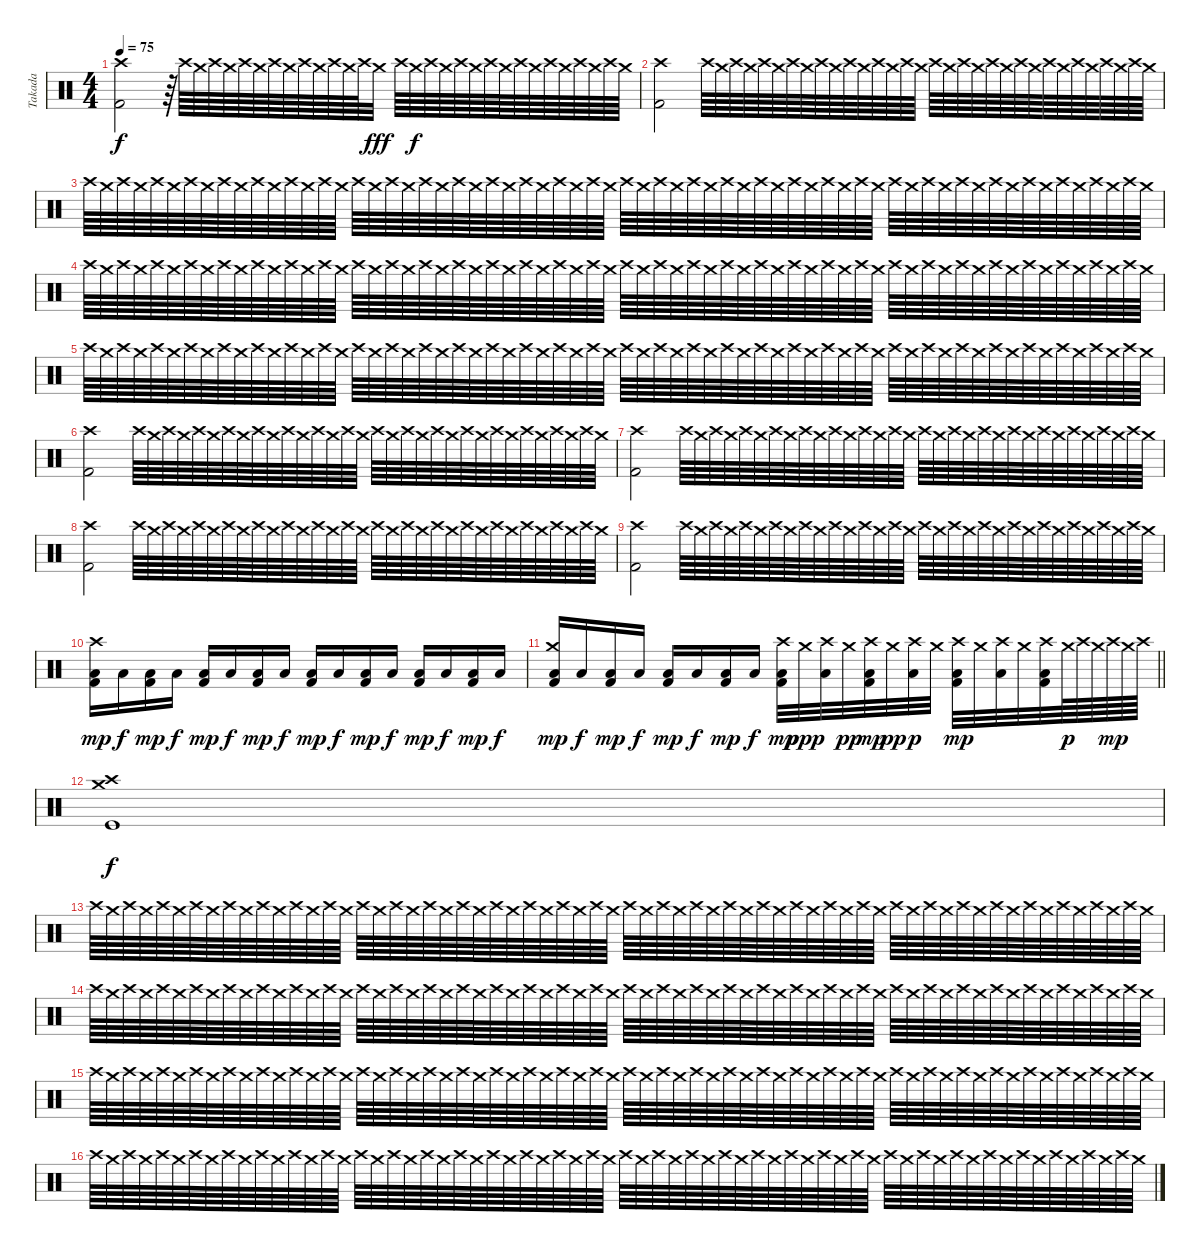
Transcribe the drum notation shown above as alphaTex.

\track ("Takada" "Takada") {instrument percussion}
\staff {score}
\articulation defaults
\ts (4 4)
\tempo 75
\clef neutral
\ks c
("Crash high (hit)" "Kick (hit) 2").2{dy f} r.64{volume 1} "Crash high (hit)".64{volume 6} "Crash medium (hit)".64 "Crash high (hit)".64 "Crash medium (hit)".64 "Crash high (hit)".64 "Crash medium (hit)".64 "Crash high (hit)".64 "Crash medium (hit)".64 "Crash high (hit)".64 "Crash medium (hit)".64 "Crash high (hit)".64 "Crash medium (hit)".64 "Crash high (hit)".64 "Crash medium (hit)".32{dy fff} "Crash high (hit)".64{volume 6} "Crash medium (hit)".64{dy f} "Crash high (hit)".64 "Crash medium (hit)".64 "Crash high (hit)".64 "Crash medium (hit)".64 "Crash high (hit)".64 "Crash medium (hit)".64 "Crash high (hit)".64 "Crash medium (hit)".64 "Crash high (hit)".64 "Crash medium (hit)".64 "Crash high (hit)".64 "Crash medium (hit)".64 "Crash high (hit)".64 "Crash medium (hit)".64 |
("Crash high (hit)" "Kick (hit) 2").2{volume 14} "Crash high (hit)".64{volume 0} "Crash medium (hit)".64{volume 7} "Crash high (hit)".64 "Crash medium (hit)".64 "Crash high (hit)".64 "Crash medium (hit)".64 "Crash high (hit)".64 "Crash medium (hit)".64 "Crash high (hit)".64 "Crash medium (hit)".64 "Crash high (hit)".64 "Crash medium (hit)".64 "Crash high (hit)".64 "Crash medium (hit)".64 "Crash high (hit)".64 "Crash medium (hit)".64 "Crash high (hit)".64 "Crash medium (hit)".64 "Crash high (hit)".64 "Crash medium (hit)".64 "Crash high (hit)".64 "Crash medium (hit)".64 "Crash high (hit)".64 "Crash medium (hit)".64 "Crash high (hit)".64 "Crash medium (hit)".64 "Crash high (hit)".64 "Crash medium (hit)".64 "Crash high (hit)".64 "Crash medium (hit)".64 "Crash high (hit)".64 "Crash medium (hit)".64 |
"Crash high (hit)".64 "Crash medium (hit)".64 "Crash high (hit)".64 "Crash medium (hit)".64 "Crash high (hit)".64 "Crash medium (hit)".64 "Crash high (hit)".64 "Crash medium (hit)".64 "Crash high (hit)".64 "Crash medium (hit)".64 "Crash high (hit)".64 "Crash medium (hit)".64 "Crash high (hit)".64 "Crash medium (hit)".64 "Crash high (hit)".64 "Crash medium (hit)".64 "Crash high (hit)".64 "Crash medium (hit)".64 "Crash high (hit)".64 "Crash medium (hit)".64 "Crash high (hit)".64 "Crash medium (hit)".64 "Crash high (hit)".64 "Crash medium (hit)".64 "Crash high (hit)".64 "Crash medium (hit)".64 "Crash high (hit)".64 "Crash medium (hit)".64 "Crash high (hit)".64 "Crash medium (hit)".64 "Crash high (hit)".64 "Crash medium (hit)".64 "Crash high (hit)".64 "Crash medium (hit)".64 "Crash high (hit)".64 "Crash medium (hit)".64 "Crash high (hit)".64 "Crash medium (hit)".64 "Crash high (hit)".64 "Crash medium (hit)".64 "Crash high (hit)".64 "Crash medium (hit)".64 "Crash high (hit)".64 "Crash medium (hit)".64 "Crash high (hit)".64 "Crash medium (hit)".64 "Crash high (hit)".64 "Crash medium (hit)".64 "Crash high (hit)".64 "Crash medium (hit)".64 "Crash high (hit)".64 "Crash medium (hit)".64 "Crash high (hit)".64 "Crash medium (hit)".64 "Crash high (hit)".64 "Crash medium (hit)".64 "Crash high (hit)".64 "Crash medium (hit)".64 "Crash high (hit)".64 "Crash medium (hit)".64 "Crash high (hit)".64 "Crash medium (hit)".64 "Crash high (hit)".64 "Crash medium (hit)".64 |
"Crash high (hit)".64 "Crash medium (hit)".64 "Crash high (hit)".64 "Crash medium (hit)".64 "Crash high (hit)".64 "Crash medium (hit)".64 "Crash high (hit)".64 "Crash medium (hit)".64 "Crash high (hit)".64{volume 3} "Crash medium (hit)".64 "Crash high (hit)".64 "Crash medium (hit)".64 "Crash high (hit)".64 "Crash medium (hit)".64 "Crash high (hit)".64 "Crash medium (hit)".64 "Crash high (hit)".64 "Crash medium (hit)".64 "Crash high (hit)".64 "Crash medium (hit)".64 "Crash high (hit)".64 "Crash medium (hit)".64 "Crash high (hit)".64 "Crash medium (hit)".64 "Crash high (hit)".64 "Crash medium (hit)".64 "Crash high (hit)".64 "Crash medium (hit)".64 "Crash high (hit)".64 "Crash medium (hit)".64 "Crash high (hit)".64 "Crash medium (hit)".64 "Crash high (hit)".64 "Crash medium (hit)".64 "Crash high (hit)".64 "Crash medium (hit)".64 "Crash high (hit)".64 "Crash medium (hit)".64 "Crash high (hit)".64 "Crash medium (hit)".64 "Crash high (hit)".64 "Crash medium (hit)".64 "Crash high (hit)".64 "Crash medium (hit)".64 "Crash high (hit)".64 "Crash medium (hit)".64 "Crash high (hit)".64 "Crash medium (hit)".64 "Crash high (hit)".64 "Crash medium (hit)".64 "Crash high (hit)".64 "Crash medium (hit)".64 "Crash high (hit)".64 "Crash medium (hit)".64 "Crash high (hit)".64 "Crash medium (hit)".64 "Crash high (hit)".64 "Crash medium (hit)".64 "Crash high (hit)".64 "Crash medium (hit)".64 "Crash high (hit)".64 "Crash medium (hit)".64 "Crash high (hit)".64 "Crash medium (hit)".64 |
"Crash high (hit)".64 "Crash medium (hit)".64 "Crash high (hit)".64 "Crash medium (hit)".64 "Crash high (hit)".64 "Crash medium (hit)".64 "Crash high (hit)".64 "Crash medium (hit)".64 "Crash high (hit)".64 "Crash medium (hit)".64 "Crash high (hit)".64 "Crash medium (hit)".64 "Crash high (hit)".64 "Crash medium (hit)".64 "Crash high (hit)".64 "Crash medium (hit)".64 "Crash high (hit)".64{volume 11} "Crash medium (hit)".64 "Crash high (hit)".64 "Crash medium (hit)".64 "Crash high (hit)".64 "Crash medium (hit)".64 "Crash high (hit)".64 "Crash medium (hit)".64 "Crash high (hit)".64 "Crash medium (hit)".64 "Crash high (hit)".64 "Crash medium (hit)".64 "Crash high (hit)".64 "Crash medium (hit)".64 "Crash high (hit)".64 "Crash medium (hit)".64 "Crash high (hit)".64 "Crash medium (hit)".64 "Crash high (hit)".64 "Crash medium (hit)".64 "Crash high (hit)".64 "Crash medium (hit)".64 "Crash high (hit)".64 "Crash medium (hit)".64 "Crash high (hit)".64 "Crash medium (hit)".64 "Crash high (hit)".64 "Crash medium (hit)".64 "Crash high (hit)".64 "Crash medium (hit)".64 "Crash high (hit)".64 "Crash medium (hit)".64 "Crash high (hit)".64 "Crash medium (hit)".64 "Crash high (hit)".64 "Crash medium (hit)".64 "Crash high (hit)".64 "Crash medium (hit)".64 "Crash high (hit)".64 "Crash medium (hit)".64 "Crash high (hit)".64 "Crash medium (hit)".64 "Crash high (hit)".64 "Crash medium (hit)".64 "Crash high (hit)".64 "Crash medium (hit)".64 "Crash high (hit)".64 "Crash medium (hit)".64 |
("Crash high (hit)" "Kick (hit) 2").2{volume 14} "Crash high (hit)".64{volume 0} "Crash medium (hit)".64{volume 12} "Crash high (hit)".64 "Crash medium (hit)".64 "Crash high (hit)".64 "Crash medium (hit)".64 "Crash high (hit)".64 "Crash medium (hit)".64 "Crash high (hit)".64 "Crash medium (hit)".64 "Crash high (hit)".64 "Crash medium (hit)".64 "Crash high (hit)".64 "Crash medium (hit)".64 "Crash high (hit)".64 "Crash medium (hit)".64 "Crash high (hit)".64 "Crash medium (hit)".64 "Crash high (hit)".64 "Crash medium (hit)".64 "Crash high (hit)".64 "Crash medium (hit)".64 "Crash high (hit)".64 "Crash medium (hit)".64 "Crash high (hit)".64 "Crash medium (hit)".64 "Crash high (hit)".64 "Crash medium (hit)".64 "Crash high (hit)".64 "Crash medium (hit)".64 "Crash high (hit)".64 "Crash medium (hit)".64 |
("Crash high (hit)" "Kick (hit) 2").2{volume 14} "Crash high (hit)".64{volume 0} "Crash medium (hit)".64{volume 12} "Crash high (hit)".64 "Crash medium (hit)".64 "Crash high (hit)".64 "Crash medium (hit)".64 "Crash high (hit)".64 "Crash medium (hit)".64 "Crash high (hit)".64 "Crash medium (hit)".64 "Crash high (hit)".64 "Crash medium (hit)".64 "Crash high (hit)".64 "Crash medium (hit)".64 "Crash high (hit)".64 "Crash medium (hit)".64 "Crash high (hit)".64 "Crash medium (hit)".64 "Crash high (hit)".64 "Crash medium (hit)".64 "Crash high (hit)".64 "Crash medium (hit)".64 "Crash high (hit)".64 "Crash medium (hit)".64 "Crash high (hit)".64 "Crash medium (hit)".64 "Crash high (hit)".64 "Crash medium (hit)".64 "Crash high (hit)".64 "Crash medium (hit)".64 "Crash high (hit)".64 "Crash medium (hit)".64 |
("Crash high (hit)" "Kick (hit) 2").2{volume 14} "Crash high (hit)".64{volume 0} "Crash medium (hit)".64{volume 12} "Crash high (hit)".64 "Crash medium (hit)".64 "Crash high (hit)".64 "Crash medium (hit)".64 "Crash high (hit)".64 "Crash medium (hit)".64 "Crash high (hit)".64 "Crash medium (hit)".64 "Crash high (hit)".64 "Crash medium (hit)".64 "Crash high (hit)".64 "Crash medium (hit)".64 "Crash high (hit)".64 "Crash medium (hit)".64 "Crash high (hit)".64 "Crash medium (hit)".64 "Crash high (hit)".64 "Crash medium (hit)".64 "Crash high (hit)".64 "Crash medium (hit)".64 "Crash high (hit)".64 "Crash medium (hit)".64 "Crash high (hit)".64 "Crash medium (hit)".64 "Crash high (hit)".64 "Crash medium (hit)".64 "Crash high (hit)".64 "Crash medium (hit)".64 "Crash high (hit)".64 "Crash medium (hit)".64 |
("Crash high (hit)" "Kick (hit) 2").2{volume 14} "Crash high (hit)".64{volume 0} "Crash medium (hit)".64{volume 12} "Crash high (hit)".64 "Crash medium (hit)".64 "Crash high (hit)".64 "Crash medium (hit)".64 "Crash high (hit)".64 "Crash medium (hit)".64 "Crash high (hit)".64 "Crash medium (hit)".64 "Crash high (hit)".64 "Crash medium (hit)".64 "Crash high (hit)".64 "Crash medium (hit)".64 "Crash high (hit)".64 "Crash medium (hit)".64 "Crash high (hit)".64 "Crash medium (hit)".64 "Crash high (hit)".64 "Crash medium (hit)".64 "Crash high (hit)".64 "Crash medium (hit)".64 "Crash high (hit)".64 "Crash medium (hit)".64 "Crash high (hit)".64 "Crash medium (hit)".64 "Crash high (hit)".64 "Crash medium (hit)".64 "Crash high (hit)".64 "Crash medium (hit)".64 "Crash high (hit)".64 "Crash medium (hit)".64 |
("Crash high (hit)" "Low Floor Tom (hit)" "Kick (hit) 2").16{dy mp volume 14} "Low Floor Tom (hit)".16{dy f} ("Low Floor Tom (hit)" "Kick (hit) 2").16{dy mp} "Low Floor Tom (hit)".16{dy f} ("Low Floor Tom (hit)" "Kick (hit) 2").16{dy mp} "Low Floor Tom (hit)".16{dy f} ("Low Floor Tom (hit)" "Kick (hit) 2").16{dy mp} "Low Floor Tom (hit)".16{dy f} ("Low Floor Tom (hit)" "Kick (hit) 2").16{dy mp} "Low Floor Tom (hit)".16{dy f} ("Low Floor Tom (hit)" "Kick (hit) 2").16{dy mp} "Low Floor Tom (hit)".16{dy f} ("Low Floor Tom (hit)" "Kick (hit) 2").16{dy mp} "Low Floor Tom (hit)".16{dy f} ("Low Floor Tom (hit)" "Kick (hit) 2").16{dy mp} "Low Floor Tom (hit)".16{dy f} |
\barLineRight lightlight
("Crash medium (hit)" "Low Floor Tom (hit)" "Kick (hit) 2").16{dy mp} "Low Floor Tom (hit)".16{dy f} ("Low Floor Tom (hit)" "Kick (hit) 2").16{dy mp} "Low Floor Tom (hit)".16{dy f} ("Low Floor Tom (hit)" "Kick (hit) 2").16{dy mp} "Low Floor Tom (hit)".16{dy f} ("Low Floor Tom (hit)" "Kick (hit) 2").16{dy mp} "Low Floor Tom (hit)".16{dy f} ("Crash high (hit)" "Low Floor Tom (hit)" "Kick (hit) 2").32{dy mp} "Crash medium (hit)".32{dy ppp} ("Crash high (hit)" "Low Floor Tom (hit)").32 "Crash medium (hit)".32{dy pp} ("Crash high (hit)" "Low Floor Tom (hit)" "Kick (hit) 2").32{dy mp} "Crash medium (hit)".32{dy pp} ("Crash high (hit)" "Low Floor Tom (hit)").32{dy p} "Crash medium (hit)".32 ("Crash high (hit)" "Low Floor Tom (hit)" "Kick (hit) 2").32{dy mp} "Crash medium (hit)".32 ("Crash high (hit)" "Low Floor Tom (hit)").32 "Crash medium (hit)".32 ("Crash high (hit)" "Low Floor Tom (hit)" "Kick (hit) 2").32 "Crash medium (hit)".64{dy p} "Crash high (hit)".64 "Crash medium (hit)".64 "Crash high (hit)".64{dy mp} "Crash medium (hit)".64 "Crash high (hit)".64 |
\section ("" "")
("Crash medium (hit)" "Crash high (hit)" "Kick (hit)").1{dy f} |
"Crash high (hit)".64{volume 0} "Crash medium (hit)".64{volume 2} "Crash high (hit)".64 "Crash medium (hit)".64 "Crash high (hit)".64 "Crash medium (hit)".64 "Crash high (hit)".64 "Crash medium (hit)".64 "Crash high (hit)".64 "Crash medium (hit)".64 "Crash high (hit)".64 "Crash medium (hit)".64 "Crash high (hit)".64 "Crash medium (hit)".64 "Crash high (hit)".64 "Crash medium (hit)".64 "Crash high (hit)".64 "Crash medium (hit)".64 "Crash high (hit)".64 "Crash medium (hit)".64 "Crash high (hit)".64 "Crash medium (hit)".64 "Crash high (hit)".64 "Crash medium (hit)".64 "Crash high (hit)".64 "Crash medium (hit)".64 "Crash high (hit)".64 "Crash medium (hit)".64 "Crash high (hit)".64 "Crash medium (hit)".64 "Crash high (hit)".64 "Crash medium (hit)".64 "Crash high (hit)".64 "Crash medium (hit)".64 "Crash high (hit)".64 "Crash medium (hit)".64 "Crash high (hit)".64 "Crash medium (hit)".64 "Crash high (hit)".64 "Crash medium (hit)".64 "Crash high (hit)".64 "Crash medium (hit)".64 "Crash high (hit)".64 "Crash medium (hit)".64 "Crash high (hit)".64 "Crash medium (hit)".64 "Crash high (hit)".64 "Crash medium (hit)".64 "Crash high (hit)".64 "Crash medium (hit)".64 "Crash high (hit)".64 "Crash medium (hit)".64 "Crash high (hit)".64 "Crash medium (hit)".64 "Crash high (hit)".64 "Crash medium (hit)".64 "Crash high (hit)".64 "Crash medium (hit)".64 "Crash high (hit)".64 "Crash medium (hit)".64 "Crash high (hit)".64 "Crash medium (hit)".64 "Crash high (hit)".64 "Crash medium (hit)".64 |
"Crash high (hit)".64 "Crash medium (hit)".64 "Crash high (hit)".64 "Crash medium (hit)".64 "Crash high (hit)".64 "Crash medium (hit)".64 "Crash high (hit)".64 "Crash medium (hit)".64 "Crash high (hit)".64 "Crash medium (hit)".64 "Crash high (hit)".64 "Crash medium (hit)".64 "Crash high (hit)".64 "Crash medium (hit)".64 "Crash high (hit)".64 "Crash medium (hit)".64 "Crash high (hit)".64 "Crash medium (hit)".64 "Crash high (hit)".64 "Crash medium (hit)".64 "Crash high (hit)".64 "Crash medium (hit)".64 "Crash high (hit)".64 "Crash medium (hit)".64 "Crash high (hit)".64 "Crash medium (hit)".64 "Crash high (hit)".64 "Crash medium (hit)".64 "Crash high (hit)".64 "Crash medium (hit)".64 "Crash high (hit)".64 "Crash medium (hit)".64 "Crash high (hit)".64 "Crash medium (hit)".64 "Crash high (hit)".64 "Crash medium (hit)".64 "Crash high (hit)".64 "Crash medium (hit)".64 "Crash high (hit)".64 "Crash medium (hit)".64 "Crash high (hit)".64 "Crash medium (hit)".64 "Crash high (hit)".64 "Crash medium (hit)".64 "Crash high (hit)".64 "Crash medium (hit)".64 "Crash high (hit)".64 "Crash medium (hit)".64 "Crash high (hit)".64 "Crash medium (hit)".64 "Crash high (hit)".64 "Crash medium (hit)".64 "Crash high (hit)".64 "Crash medium (hit)".64 "Crash high (hit)".64 "Crash medium (hit)".64 "Crash high (hit)".64 "Crash medium (hit)".64 "Crash high (hit)".64 "Crash medium (hit)".64 "Crash high (hit)".64 "Crash medium (hit)".64 "Crash high (hit)".64 "Crash medium (hit)".64 |
"Crash high (hit)".64 "Crash medium (hit)".64 "Crash high (hit)".64 "Crash medium (hit)".64 "Crash high (hit)".64 "Crash medium (hit)".64 "Crash high (hit)".64 "Crash medium (hit)".64 "Crash high (hit)".64{volume 1} "Crash medium (hit)".64 "Crash high (hit)".64 "Crash medium (hit)".64 "Crash high (hit)".64 "Crash medium (hit)".64 "Crash high (hit)".64 "Crash medium (hit)".64 "Crash high (hit)".64 "Crash medium (hit)".64 "Crash high (hit)".64 "Crash medium (hit)".64 "Crash high (hit)".64 "Crash medium (hit)".64 "Crash high (hit)".64 "Crash medium (hit)".64 "Crash high (hit)".64 "Crash medium (hit)".64 "Crash high (hit)".64 "Crash medium (hit)".64 "Crash high (hit)".64 "Crash medium (hit)".64 "Crash high (hit)".64 "Crash medium (hit)".64 "Crash high (hit)".64 "Crash medium (hit)".64 "Crash high (hit)".64 "Crash medium (hit)".64 "Crash high (hit)".64 "Crash medium (hit)".64 "Crash high (hit)".64 "Crash medium (hit)".64 "Crash high (hit)".64 "Crash medium (hit)".64 "Crash high (hit)".64 "Crash medium (hit)".64 "Crash high (hit)".64 "Crash medium (hit)".64 "Crash high (hit)".64 "Crash medium (hit)".64 "Crash high (hit)".64 "Crash medium (hit)".64 "Crash high (hit)".64 "Crash medium (hit)".64 "Crash high (hit)".64 "Crash medium (hit)".64 "Crash high (hit)".64 "Crash medium (hit)".64 "Crash high (hit)".64 "Crash medium (hit)".64 "Crash high (hit)".64 "Crash medium (hit)".64 "Crash high (hit)".64 "Crash medium (hit)".64 "Crash high (hit)".64 "Crash medium (hit)".64 |
"Crash high (hit)".64 "Crash medium (hit)".64 "Crash high (hit)".64 "Crash medium (hit)".64 "Crash high (hit)".64 "Crash medium (hit)".64 "Crash high (hit)".64 "Crash medium (hit)".64 "Crash high (hit)".64 "Crash medium (hit)".64 "Crash high (hit)".64 "Crash medium (hit)".64 "Crash high (hit)".64 "Crash medium (hit)".64 "Crash high (hit)".64 "Crash medium (hit)".64 "Crash high (hit)".64{volume 2} "Crash medium (hit)".64 "Crash high (hit)".64 "Crash medium (hit)".64 "Crash high (hit)".64 "Crash medium (hit)".64 "Crash high (hit)".64 "Crash medium (hit)".64 "Crash high (hit)".64 "Crash medium (hit)".64 "Crash high (hit)".64 "Crash medium (hit)".64 "Crash high (hit)".64 "Crash medium (hit)".64 "Crash high (hit)".64 "Crash medium (hit)".64 "Crash high (hit)".64 "Crash medium (hit)".64 "Crash high (hit)".64 "Crash medium (hit)".64 "Crash high (hit)".64 "Crash medium (hit)".64 "Crash high (hit)".64 "Crash medium (hit)".64 "Crash high (hit)".64 "Crash medium (hit)".64 "Crash high (hit)".64 "Crash medium (hit)".64 "Crash high (hit)".64 "Crash medium (hit)".64 "Crash high (hit)".64 "Crash medium (hit)".64 "Crash high (hit)".64 "Crash medium (hit)".64 "Crash high (hit)".64 "Crash medium (hit)".64 "Crash high (hit)".64 "Crash medium (hit)".64 "Crash high (hit)".64 "Crash medium (hit)".64 "Crash high (hit)".64 "Crash medium (hit)".64 "Crash high (hit)".64 "Crash medium (hit)".64 "Crash high (hit)".64 "Crash medium (hit)".64 "Crash high (hit)".64 "Crash medium (hit)".64
